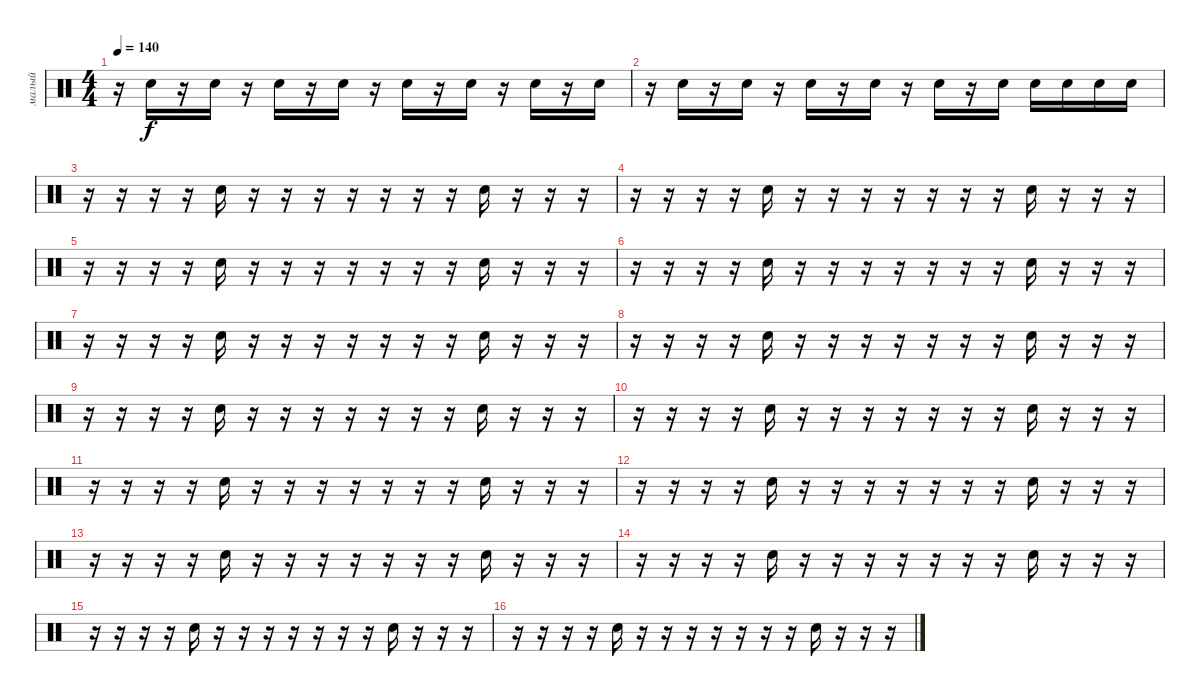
\track ("малый" "малый") {mute instrument percussion}
\staff {score}
\articulation defaults
\ts (4 4)
\tempo 140
\clef neutral
\ks c
r.16{dy f} "Electric Snare (hit)".16 r.16 "Electric Snare (hit)".16 r.16 "Electric Snare (hit)".16 r.16 "Electric Snare (hit)".16 r.16 "Electric Snare (hit)".16 r.16 "Electric Snare (hit)".16 r.16 "Electric Snare (hit)".16 r.16 "Electric Snare (hit)".16 |
r.16 "Electric Snare (hit)".16 r.16 "Electric Snare (hit)".16 r.16 "Electric Snare (hit)".16 r.16 "Electric Snare (hit)".16 r.16 "Electric Snare (hit)".16 r.16 "Electric Snare (hit)".16 "Electric Snare (hit)".16 "Electric Snare (hit)".16 "Electric Snare (hit)".16 "Electric Snare (hit)".16 |
r.16 r.16 r.16 r.16 "Electric Snare (hit)".16 r.16 r.16 r.16 r.16 r.16 r.16 r.16 "Electric Snare (hit)".16 r.16 r.16 r.16 |
r.16 r.16 r.16 r.16 "Electric Snare (hit)".16 r.16 r.16 r.16 r.16 r.16 r.16 r.16 "Electric Snare (hit)".16 r.16 r.16 r.16 |
r.16 r.16 r.16 r.16 "Electric Snare (hit)".16 r.16 r.16 r.16 r.16 r.16 r.16 r.16 "Electric Snare (hit)".16 r.16 r.16 r.16 |
r.16 r.16 r.16 r.16 "Electric Snare (hit)".16 r.16 r.16 r.16 r.16 r.16 r.16 r.16 "Electric Snare (hit)".16 r.16 r.16 r.16 |
r.16 r.16 r.16 r.16 "Electric Snare (hit)".16 r.16 r.16 r.16 r.16 r.16 r.16 r.16 "Electric Snare (hit)".16 r.16 r.16 r.16 |
r.16 r.16 r.16 r.16 "Electric Snare (hit)".16 r.16 r.16 r.16 r.16 r.16 r.16 r.16 "Electric Snare (hit)".16 r.16 r.16 r.16 |
r.16 r.16 r.16 r.16 "Electric Snare (hit)".16 r.16 r.16 r.16 r.16 r.16 r.16 r.16 "Electric Snare (hit)".16 r.16 r.16 r.16 |
r.16 r.16 r.16 r.16 "Electric Snare (hit)".16 r.16 r.16 r.16 r.16 r.16 r.16 r.16 "Electric Snare (hit)".16 r.16 r.16 r.16 |
r.16 r.16 r.16 r.16 "Electric Snare (hit)".16 r.16 r.16 r.16 r.16 r.16 r.16 r.16 "Electric Snare (hit)".16 r.16 r.16 r.16 |
r.16 r.16 r.16 r.16 "Electric Snare (hit)".16 r.16 r.16 r.16 r.16 r.16 r.16 r.16 "Electric Snare (hit)".16 r.16 r.16 r.16 |
r.16 r.16 r.16 r.16 "Electric Snare (hit)".16 r.16 r.16 r.16 r.16 r.16 r.16 r.16 "Electric Snare (hit)".16 r.16 r.16 r.16 |
r.16 r.16 r.16 r.16 "Electric Snare (hit)".16 r.16 r.16 r.16 r.16 r.16 r.16 r.16 "Electric Snare (hit)".16 r.16 r.16 r.16 |
r.16 r.16 r.16 r.16 "Electric Snare (hit)".16 r.16 r.16 r.16 r.16 r.16 r.16 r.16 "Electric Snare (hit)".16 r.16 r.16 r.16 |
r.16 r.16 r.16 r.16 "Electric Snare (hit)".16 r.16 r.16 r.16 r.16 r.16 r.16 r.16 "Electric Snare (hit)".16 r.16 r.16 r.16
